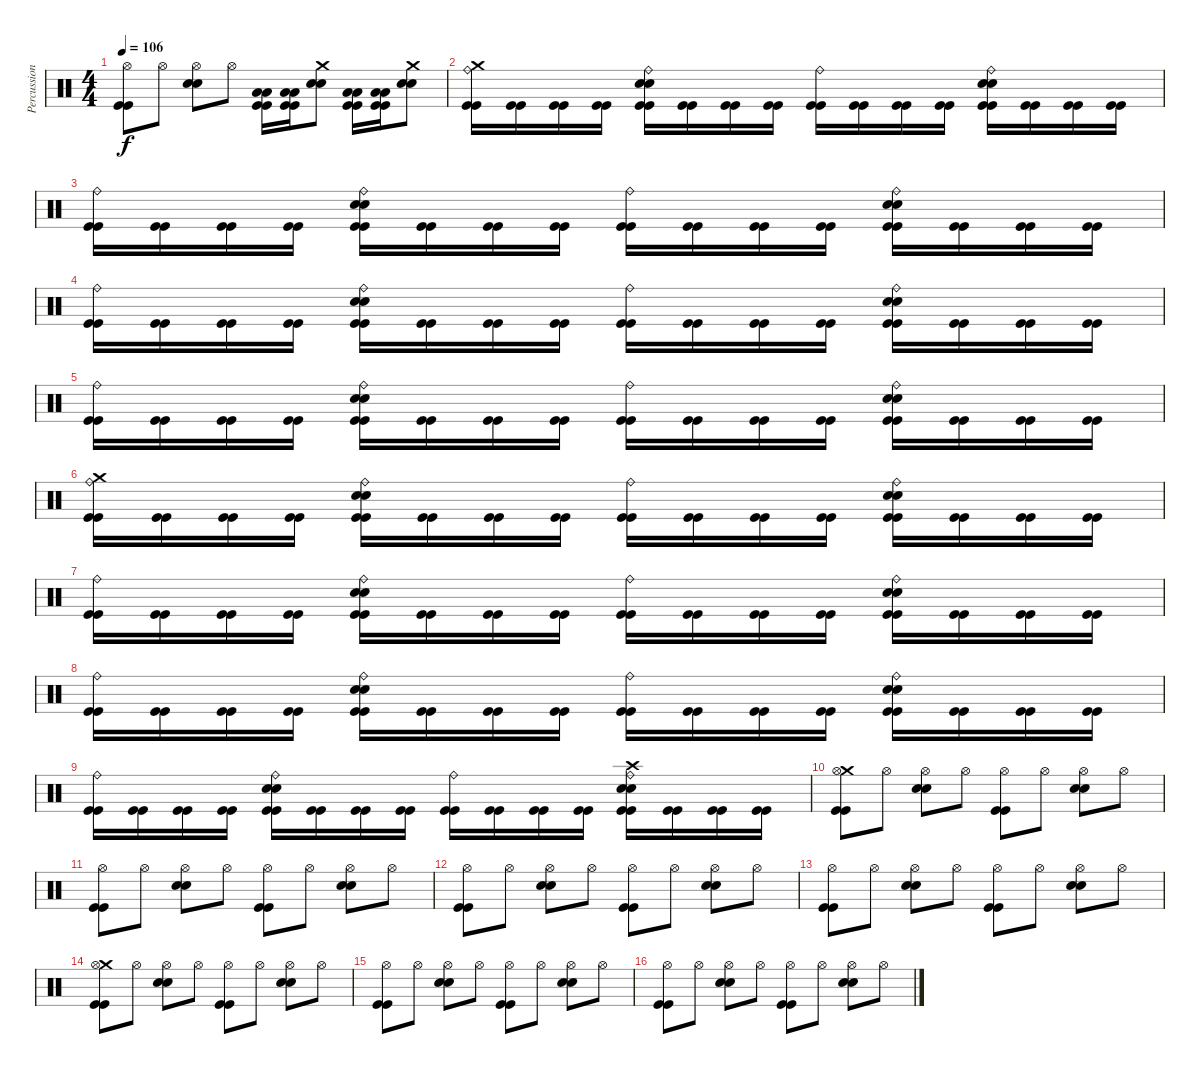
\track ("Percussion" "Percussion") {instrument percussion}
\staff {score}
\articulation defaults
\ts (4 4)
\tempo 106
\clef neutral
\ks c
("Hi-Hat (open)" "Kick (hit)" "Kick (hit)").8{dy f} "Hi-Hat (open)".8 ("Hi-Hat (open)" "Snare (hit) 2" "Snare (hit) 2").8 "Hi-Hat (open)".8 ("Low Floor Tom (hit)" "Low Floor Tom (hit)" "Kick (hit)" "Kick (hit)").16 ("Low Floor Tom (hit)" "Low Floor Tom (hit)" "Kick (hit)" "Kick (hit)").16 ("Snare (hit) 2" "Snare (hit) 2" "Crash medium (hit)").8 ("Low Floor Tom (hit)" "Low Floor Tom (hit)" "Kick (hit)" "Kick (hit)").16 ("Low Floor Tom (hit)" "Low Floor Tom (hit)" "Kick (hit)" "Kick (hit)").16 ("Snare (hit) 2" "Snare (hit) 2" "Crash medium (hit)").8 |
("Ride (bell)" "Crash medium (hit)" "Kick (hit)" "Kick (hit)").16 ("Kick (hit)" "Kick (hit)").16 ("Kick (hit)" "Kick (hit)").16 ("Kick (hit)" "Kick (hit)").16 ("Ride (bell)" "Snare (hit) 2" "Snare (hit) 2" "Kick (hit)" "Kick (hit)").16 ("Kick (hit)" "Kick (hit)").16 ("Kick (hit)" "Kick (hit)").16 ("Kick (hit)" "Kick (hit)").16 ("Ride (bell)" "Kick (hit)" "Kick (hit)").16 ("Kick (hit)" "Kick (hit)").16 ("Kick (hit)" "Kick (hit)").16 ("Kick (hit)" "Kick (hit)").16 ("Ride (bell)" "Snare (hit) 2" "Snare (hit) 2" "Kick (hit)" "Kick (hit)").16 ("Kick (hit)" "Kick (hit)").16 ("Kick (hit)" "Kick (hit)").16 ("Kick (hit)" "Kick (hit)").16 |
("Ride (bell)" "Kick (hit)" "Kick (hit)").16 ("Kick (hit)" "Kick (hit)").16 ("Kick (hit)" "Kick (hit)").16 ("Kick (hit)" "Kick (hit)").16 ("Ride (bell)" "Snare (hit) 2" "Snare (hit) 2" "Kick (hit)" "Kick (hit)").16 ("Kick (hit)" "Kick (hit)").16 ("Kick (hit)" "Kick (hit)").16 ("Kick (hit)" "Kick (hit)").16 ("Ride (bell)" "Kick (hit)" "Kick (hit)").16 ("Kick (hit)" "Kick (hit)").16 ("Kick (hit)" "Kick (hit)").16 ("Kick (hit)" "Kick (hit)").16 ("Ride (bell)" "Snare (hit) 2" "Snare (hit) 2" "Kick (hit)" "Kick (hit)").16 ("Kick (hit)" "Kick (hit)").16 ("Kick (hit)" "Kick (hit)").16 ("Kick (hit)" "Kick (hit)").16 |
("Ride (bell)" "Kick (hit)" "Kick (hit)").16 ("Kick (hit)" "Kick (hit)").16 ("Kick (hit)" "Kick (hit)").16 ("Kick (hit)" "Kick (hit)").16 ("Ride (bell)" "Snare (hit) 2" "Snare (hit) 2" "Kick (hit)" "Kick (hit)").16 ("Kick (hit)" "Kick (hit)").16 ("Kick (hit)" "Kick (hit)").16 ("Kick (hit)" "Kick (hit)").16 ("Ride (bell)" "Kick (hit)" "Kick (hit)").16 ("Kick (hit)" "Kick (hit)").16 ("Kick (hit)" "Kick (hit)").16 ("Kick (hit)" "Kick (hit)").16 ("Ride (bell)" "Snare (hit) 2" "Snare (hit) 2" "Kick (hit)" "Kick (hit)").16 ("Kick (hit)" "Kick (hit)").16 ("Kick (hit)" "Kick (hit)").16 ("Kick (hit)" "Kick (hit)").16 |
("Ride (bell)" "Kick (hit)" "Kick (hit)").16 ("Kick (hit)" "Kick (hit)").16 ("Kick (hit)" "Kick (hit)").16 ("Kick (hit)" "Kick (hit)").16 ("Ride (bell)" "Snare (hit) 2" "Snare (hit) 2" "Kick (hit)" "Kick (hit)").16 ("Kick (hit)" "Kick (hit)").16 ("Kick (hit)" "Kick (hit)").16 ("Kick (hit)" "Kick (hit)").16 ("Ride (bell)" "Kick (hit)" "Kick (hit)").16 ("Kick (hit)" "Kick (hit)").16 ("Kick (hit)" "Kick (hit)").16 ("Kick (hit)" "Kick (hit)").16 ("Ride (bell)" "Snare (hit) 2" "Snare (hit) 2" "Kick (hit)" "Kick (hit)").16 ("Kick (hit)" "Kick (hit)").16 ("Kick (hit)" "Kick (hit)").16 ("Kick (hit)" "Kick (hit)").16 |
("Ride (bell)" "Crash medium (hit)" "Kick (hit)" "Kick (hit)").16 ("Kick (hit)" "Kick (hit)").16 ("Kick (hit)" "Kick (hit)").16 ("Kick (hit)" "Kick (hit)").16 ("Ride (bell)" "Snare (hit) 2" "Snare (hit) 2" "Kick (hit)" "Kick (hit)").16 ("Kick (hit)" "Kick (hit)").16 ("Kick (hit)" "Kick (hit)").16 ("Kick (hit)" "Kick (hit)").16 ("Ride (bell)" "Kick (hit)" "Kick (hit)").16 ("Kick (hit)" "Kick (hit)").16 ("Kick (hit)" "Kick (hit)").16 ("Kick (hit)" "Kick (hit)").16 ("Ride (bell)" "Snare (hit) 2" "Snare (hit) 2" "Kick (hit)" "Kick (hit)").16 ("Kick (hit)" "Kick (hit)").16 ("Kick (hit)" "Kick (hit)").16 ("Kick (hit)" "Kick (hit)").16 |
("Ride (bell)" "Kick (hit)" "Kick (hit)").16 ("Kick (hit)" "Kick (hit)").16 ("Kick (hit)" "Kick (hit)").16 ("Kick (hit)" "Kick (hit)").16 ("Ride (bell)" "Snare (hit) 2" "Snare (hit) 2" "Kick (hit)" "Kick (hit)").16 ("Kick (hit)" "Kick (hit)").16 ("Kick (hit)" "Kick (hit)").16 ("Kick (hit)" "Kick (hit)").16 ("Ride (bell)" "Kick (hit)" "Kick (hit)").16 ("Kick (hit)" "Kick (hit)").16 ("Kick (hit)" "Kick (hit)").16 ("Kick (hit)" "Kick (hit)").16 ("Ride (bell)" "Snare (hit) 2" "Snare (hit) 2" "Kick (hit)" "Kick (hit)").16 ("Kick (hit)" "Kick (hit)").16 ("Kick (hit)" "Kick (hit)").16 ("Kick (hit)" "Kick (hit)").16 |
("Ride (bell)" "Kick (hit)" "Kick (hit)").16 ("Kick (hit)" "Kick (hit)").16 ("Kick (hit)" "Kick (hit)").16 ("Kick (hit)" "Kick (hit)").16 ("Ride (bell)" "Snare (hit) 2" "Snare (hit) 2" "Kick (hit)" "Kick (hit)").16 ("Kick (hit)" "Kick (hit)").16 ("Kick (hit)" "Kick (hit)").16 ("Kick (hit)" "Kick (hit)").16 ("Ride (bell)" "Kick (hit)" "Kick (hit)").16 ("Kick (hit)" "Kick (hit)").16 ("Kick (hit)" "Kick (hit)").16 ("Kick (hit)" "Kick (hit)").16 ("Ride (bell)" "Snare (hit) 2" "Snare (hit) 2" "Kick (hit)" "Kick (hit)").16 ("Kick (hit)" "Kick (hit)").16 ("Kick (hit)" "Kick (hit)").16 ("Kick (hit)" "Kick (hit)").16 |
("Ride (bell)" "Kick (hit)" "Kick (hit)").16 ("Kick (hit)" "Kick (hit)").16 ("Kick (hit)" "Kick (hit)").16 ("Kick (hit)" "Kick (hit)").16 ("Ride (bell)" "Snare (hit) 2" "Snare (hit) 2" "Kick (hit)" "Kick (hit)").16 ("Kick (hit)" "Kick (hit)").16 ("Kick (hit)" "Kick (hit)").16 ("Kick (hit)" "Kick (hit)").16 ("Ride (bell)" "Kick (hit)" "Kick (hit)").16 ("Kick (hit)" "Kick (hit)").16 ("Kick (hit)" "Kick (hit)").16 ("Kick (hit)" "Kick (hit)").16 ("Crash high (hit)" "Ride (bell)" "Snare (hit) 2" "Snare (hit) 2" "Kick (hit)" "Kick (hit)").16 ("Kick (hit)" "Kick (hit)").16 ("Kick (hit)" "Kick (hit)").16 ("Kick (hit)" "Kick (hit)").16 |
("Crash medium (hit)" "Hi-Hat (open)" "Kick (hit)" "Kick (hit)").8 "Hi-Hat (open)".8 ("Hi-Hat (open)" "Snare (hit) 2" "Snare (hit) 2").8 "Hi-Hat (open)".8 ("Hi-Hat (open)" "Kick (hit)" "Kick (hit)").8 "Hi-Hat (open)".8 ("Hi-Hat (open)" "Snare (hit) 2" "Snare (hit) 2").8 "Hi-Hat (open)".8 |
("Hi-Hat (open)" "Kick (hit)" "Kick (hit)").8 "Hi-Hat (open)".8 ("Hi-Hat (open)" "Snare (hit) 2" "Snare (hit) 2").8 "Hi-Hat (open)".8 ("Hi-Hat (open)" "Kick (hit)" "Kick (hit)").8 "Hi-Hat (open)".8 ("Hi-Hat (open)" "Snare (hit) 2" "Snare (hit) 2").8 "Hi-Hat (open)".8 |
("Hi-Hat (open)" "Kick (hit)" "Kick (hit)").8 "Hi-Hat (open)".8 ("Hi-Hat (open)" "Snare (hit) 2" "Snare (hit) 2").8 "Hi-Hat (open)".8 ("Hi-Hat (open)" "Kick (hit)" "Kick (hit)").8 "Hi-Hat (open)".8 ("Hi-Hat (open)" "Snare (hit) 2" "Snare (hit) 2").8 "Hi-Hat (open)".8 |
("Hi-Hat (open)" "Kick (hit)" "Kick (hit)").8 "Hi-Hat (open)".8 ("Hi-Hat (open)" "Snare (hit) 2" "Snare (hit) 2").8 "Hi-Hat (open)".8 ("Hi-Hat (open)" "Kick (hit)" "Kick (hit)").8 "Hi-Hat (open)".8 ("Hi-Hat (open)" "Snare (hit) 2" "Snare (hit) 2").8 "Hi-Hat (open)".8 |
("Crash medium (hit)" "Hi-Hat (open)" "Kick (hit)" "Kick (hit)").8 "Hi-Hat (open)".8 ("Hi-Hat (open)" "Snare (hit) 2" "Snare (hit) 2").8 "Hi-Hat (open)".8 ("Hi-Hat (open)" "Kick (hit)" "Kick (hit)").8 "Hi-Hat (open)".8 ("Hi-Hat (open)" "Snare (hit) 2" "Snare (hit) 2").8 "Hi-Hat (open)".8 |
("Hi-Hat (open)" "Kick (hit)" "Kick (hit)").8 "Hi-Hat (open)".8 ("Hi-Hat (open)" "Snare (hit) 2" "Snare (hit) 2").8 "Hi-Hat (open)".8 ("Hi-Hat (open)" "Kick (hit)" "Kick (hit)").8 "Hi-Hat (open)".8 ("Hi-Hat (open)" "Snare (hit) 2" "Snare (hit) 2").8 "Hi-Hat (open)".8 |
("Hi-Hat (open)" "Kick (hit)" "Kick (hit)").8 "Hi-Hat (open)".8 ("Hi-Hat (open)" "Snare (hit) 2" "Snare (hit) 2").8 "Hi-Hat (open)".8 ("Hi-Hat (open)" "Kick (hit)" "Kick (hit)").8 "Hi-Hat (open)".8 ("Hi-Hat (open)" "Snare (hit) 2" "Snare (hit) 2").8 "Hi-Hat (open)".8
